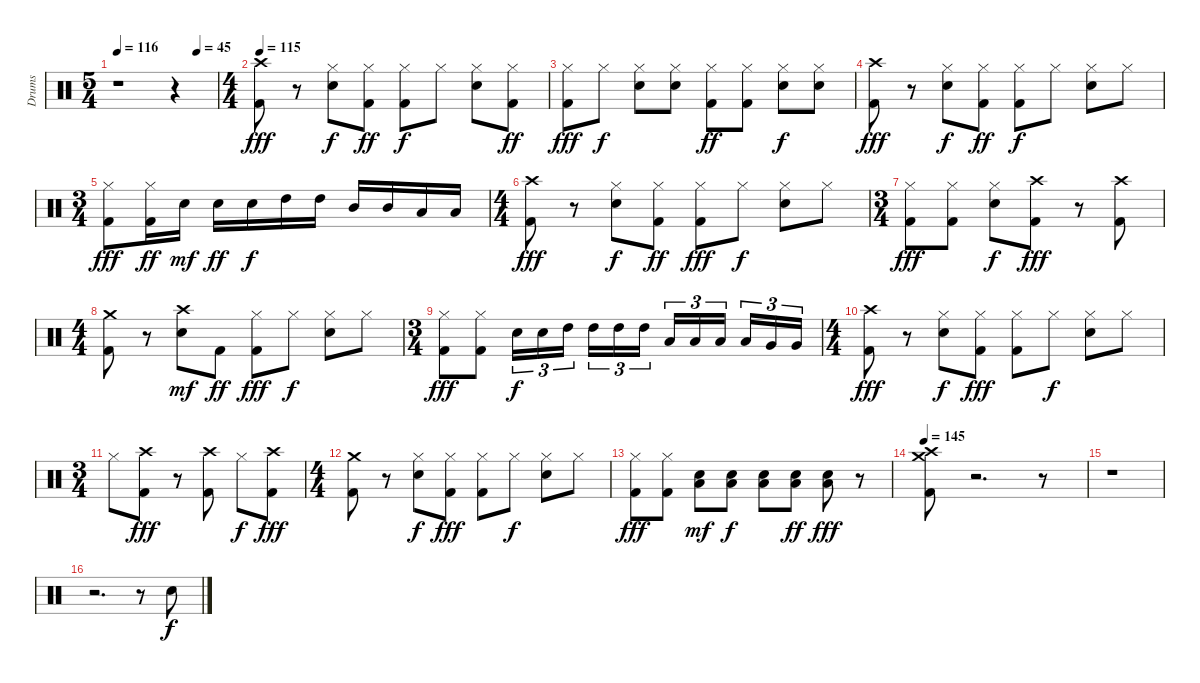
\track ("Drums" "Drums") {instrument percussion}
\staff {score}
\articulation defaults
\ts (5 4)
\tempo 116
\tempo (45 0.8)
\clef neutral
\ks c
r.1{dy fff} r.4 |
\ts (4 4)
\tempo 115
("Kick (hit) 2" "Crash high (hit)").8 r.8 ("Snare (hit) 2" "Hi-Hat (closed)").8{dy f} ("Kick (hit) 2" "Hi-Hat (closed)").8{dy ff} ("Kick (hit) 2" "Hi-Hat (closed)").8{dy f} "Hi-Hat (closed)".8 ("Snare (hit) 2" "Hi-Hat (closed)").8 ("Kick (hit) 2" "Hi-Hat (closed)").8{dy ff} |
("Kick (hit) 2" "Hi-Hat (closed)").8{dy fff} "Hi-Hat (closed)".8{dy f} ("Snare (hit) 2" "Hi-Hat (closed)").8 ("Snare (hit) 2" "Hi-Hat (closed)").8 ("Kick (hit) 2" "Hi-Hat (closed)").8{dy ff} ("Kick (hit) 2" "Hi-Hat (closed)").8 ("Snare (hit) 2" "Hi-Hat (closed)").8{dy f} ("Snare (hit) 2" "Hi-Hat (closed)").8 |
("Kick (hit) 2" "Crash high (hit)").8{dy fff} r.8 ("Snare (hit) 2" "Hi-Hat (closed)").8{dy f} ("Kick (hit) 2" "Hi-Hat (closed)").8{dy ff} ("Kick (hit) 2" "Hi-Hat (closed)").8{dy f} "Hi-Hat (closed)".8 ("Snare (hit) 2" "Hi-Hat (closed)").8 "Hi-Hat (closed)".8 |
\ts (3 4)
("Kick (hit) 2" "Hi-Hat (closed)").8{dy fff} ("Kick (hit) 2" "Hi-Hat (closed)").16{dy ff} "Snare (hit) 2".16{dy mf} "Snare (hit) 2".16{dy ff} "Snare (hit) 2".16{dy f} "High Tom (hit)".16 "High Tom (hit)".16 "Mid Tom (hit)".16 "Mid Tom (hit)".16 "Low Tom (hit)".16 "Low Tom (hit)".16 |
\ts (4 4)
("Kick (hit) 2" "Crash high (hit)").8{dy fff} r.8 ("Snare (hit) 2" "Hi-Hat (closed)").8{dy f} ("Kick (hit) 2" "Hi-Hat (closed)").8{dy ff} ("Kick (hit) 2" "Hi-Hat (closed)").8{dy fff} "Hi-Hat (closed)".8{dy f} ("Snare (hit) 2" "Hi-Hat (closed)").8 "Hi-Hat (closed)".8 |
\ts (3 4)
("Kick (hit) 2" "Hi-Hat (closed)").8{dy fff} ("Kick (hit) 2" "Hi-Hat (closed)").8 ("Snare (hit) 2" "Hi-Hat (closed)").8{dy f} ("Kick (hit) 2" "Crash high (hit)").8{dy fff} r.8 ("Kick (hit) 2" "Crash high (hit)").8 |
\ts (4 4)
("Kick (hit) 2" "Crash medium (hit)").8 r.8 ("Snare (hit) 2" "Crash high (hit)").8{dy mf} "Kick (hit) 2".8{dy ff} ("Kick (hit) 2" "Hi-Hat (closed)").8{dy fff} "Hi-Hat (closed)".8{dy f} ("Snare (hit) 2" "Hi-Hat (closed)").8 "Hi-Hat (closed)".8 |
\ts (3 4)
("Kick (hit) 2" "Hi-Hat (closed)").8{dy fff} ("Kick (hit) 2" "Hi-Hat (closed)").8 "Snare (hit) 2".16{tu (3 2) dy f} "Snare (hit) 2".16{tu (3 2)} "High Tom (hit)".16{tu (3 2)} "High Tom (hit)".16{tu (3 2)} "High Tom (hit)".16{tu (3 2)} "High Tom (hit)".16{tu (3 2)} "Low Tom (hit)".16{tu (3 2)} "Low Tom (hit)".16{tu (3 2)} "Low Tom (hit)".16{tu (3 2)} "Low Tom (hit)".16{tu (3 2)} "Very Low Tom (hit)".16{tu (3 2)} "Very Low Tom (hit)".16{tu (3 2)} |
\ts (4 4)
("Kick (hit) 2" "Crash high (hit)").8{dy fff} r.8 ("Snare (hit) 2" "Hi-Hat (closed)").8{dy f} ("Kick (hit) 2" "Hi-Hat (closed)").8{dy fff} ("Kick (hit) 2" "Hi-Hat (closed)").8 "Hi-Hat (closed)".8{dy f} ("Snare (hit) 2" "Hi-Hat (closed)").8 "Hi-Hat (closed)".8 |
\ts (3 4)
"Hi-Hat (closed)".8 ("Kick (hit) 2" "Crash high (hit)").8{dy fff} r.8 ("Kick (hit) 2" "Crash high (hit)").8 "Hi-Hat (closed)".8{dy f} ("Kick (hit) 2" "Crash high (hit)").8{dy fff} |
\ts (4 4)
("Kick (hit) 2" "Crash medium (hit)").8 r.8 ("Snare (hit) 2" "Hi-Hat (closed)").8{dy f} ("Kick (hit) 2" "Hi-Hat (closed)").8{dy fff} ("Kick (hit) 2" "Hi-Hat (closed)").8 "Hi-Hat (closed)".8{dy f} ("Snare (hit) 2" "Hi-Hat (closed)").8 "Hi-Hat (closed)".8 |
("Kick (hit) 2" "Hi-Hat (closed)").8{dy fff} ("Kick (hit) 2" "Hi-Hat (closed)").8 ("Snare (hit) 2" "Low Tom (hit)").8{dy mf} ("Snare (hit) 2" "Low Tom (hit)").8{dy f} ("Snare (hit) 2" "Low Tom (hit)").8 ("Snare (hit) 2" "Low Tom (hit)").8{dy ff} ("Snare (hit) 2" "Low Tom (hit)").8{dy fff} r.8 |
\tempo 145
("Kick (hit) 2" "Crash high (hit)" "Crash medium (hit)").8 r.2{d} r.8 |
r.1 |
r.2{d} r.8 "Snare (hit) 2".8{dy f}
